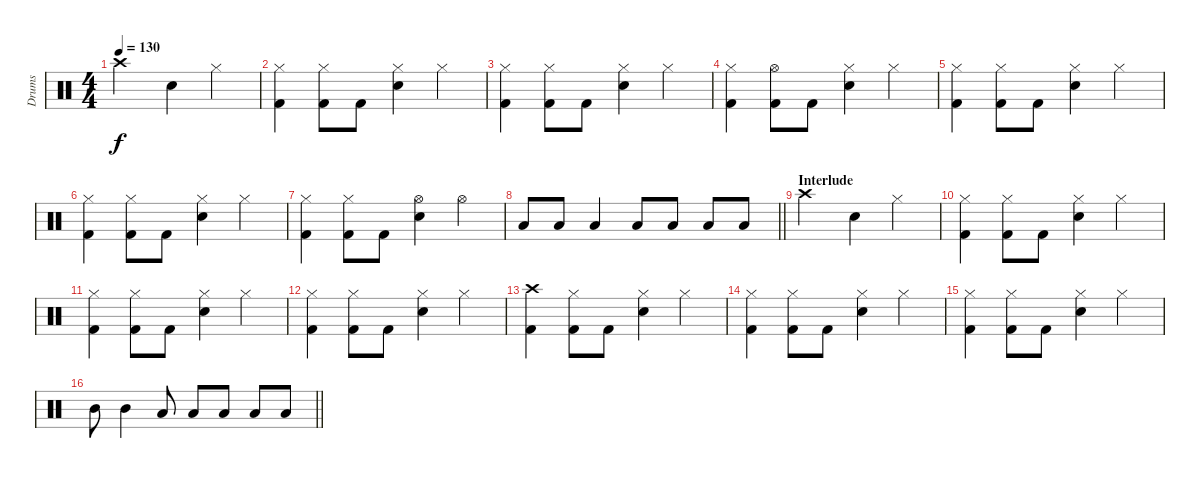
\track ("Drums" "Drums") {instrument percussion}
\staff {score}
\articulation defaults
\ts (4 4)
\tempo 130
\clef neutral
\ks c "Crash high (hit)".2{dy f} "Snare (hit) 2".4 "Hi-Hat (closed)".4
|
("Hi-Hat (closed)" "Kick (hit) 2").4 ("Hi-Hat (closed)" "Kick (hit) 2").8 "Kick (hit) 2".8 ("Hi-Hat (closed)" "Snare (hit) 2").4 "Hi-Hat (closed)".4 |
("Hi-Hat (closed)" "Kick (hit) 2").4 ("Hi-Hat (closed)" "Kick (hit) 2").8 "Kick (hit) 2".8 ("Hi-Hat (closed)" "Snare (hit) 2").4 "Hi-Hat (closed)".4 |
("Hi-Hat (closed)" "Kick (hit) 2").4 ("Hi-Hat (open)" "Kick (hit) 2").8 "Kick (hit) 2".8 ("Hi-Hat (closed)" "Snare (hit) 2").4 "Hi-Hat (closed)".4 |
("Hi-Hat (closed)" "Kick (hit) 2").4 ("Hi-Hat (closed)" "Kick (hit) 2").8 "Kick (hit) 2".8 ("Hi-Hat (closed)" "Snare (hit) 2").4 "Hi-Hat (closed)".4 |
("Hi-Hat (closed)" "Kick (hit) 2").4 ("Hi-Hat (closed)" "Kick (hit) 2").8 "Kick (hit) 2".8 ("Hi-Hat (closed)" "Snare (hit) 2").4 "Hi-Hat (closed)".4 |
("Hi-Hat (closed)" "Kick (hit) 2").4 ("Hi-Hat (closed)" "Kick (hit) 2").8 "Kick (hit) 2".8 ("Hi-Hat (open)" "Snare (hit) 2").4 "Hi-Hat (open)".4 |
\barLineRight lightlight "Low Tom (hit)".8 "Low Tom (hit)".8 "Low Tom (hit)".4 "Low Tom (hit)".8 "Low Tom (hit)".8 "Low Tom (hit)".8 "Low Tom (hit)".8
|
\section ("" "Interlude")
"Crash high (hit)".2 "Snare (hit) 2".4 "Hi-Hat (closed)".4 |
("Hi-Hat (closed)" "Kick (hit) 2").4 ("Hi-Hat (closed)" "Kick (hit) 2").8 "Kick (hit) 2".8 ("Hi-Hat (closed)" "Snare (hit) 2").4 "Hi-Hat (closed)".4 |
("Hi-Hat (closed)" "Kick (hit) 2").4 ("Hi-Hat (closed)" "Kick (hit) 2").8 "Kick (hit) 2".8 ("Hi-Hat (closed)" "Snare (hit) 2").4 "Hi-Hat (closed)".4 |
("Hi-Hat (closed)" "Kick (hit) 2").4 ("Hi-Hat (closed)" "Kick (hit) 2").8 "Kick (hit) 2".8 ("Hi-Hat (closed)" "Snare (hit) 2").4 "Hi-Hat (closed)".4 |
("Crash high (hit)" "Kick (hit) 2").4 ("Hi-Hat (closed)" "Kick (hit) 2").8 "Kick (hit) 2".8 ("Hi-Hat (closed)" "Snare (hit) 2").4 "Hi-Hat (closed)".4 |
("Hi-Hat (closed)" "Kick (hit) 2").4 ("Hi-Hat (closed)" "Kick (hit) 2").8 "Kick (hit) 2".8 ("Hi-Hat (closed)" "Snare (hit) 2").4 "Hi-Hat (closed)".4 |
("Hi-Hat (closed)" "Kick (hit) 2").4 ("Hi-Hat (closed)" "Kick (hit) 2").8 "Kick (hit) 2".8 ("Hi-Hat (closed)" "Snare (hit) 2").4 "Hi-Hat (closed)".4 |
\barLineRight lightlight "Mid Tom (hit)".8 "Mid Tom (hit)".4 "Low Tom (hit)".8 "Low Tom (hit)".8 "Low Tom (hit)".8 "Low Tom (hit)".8 "Low Tom (hit)".8
